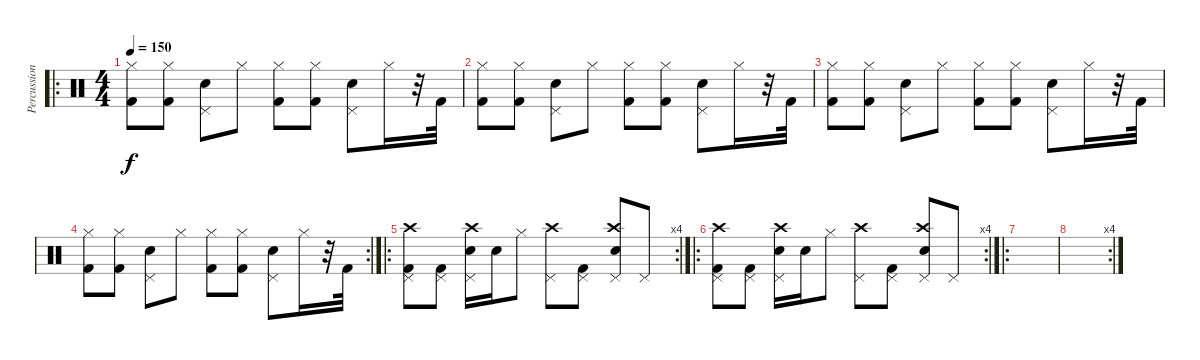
\track ("Percussions" "Percussion") {instrument percussion}
\staff {score}
\articulation defaults
\ro
\ts (4 4)
\tempo 150
\clef neutral
\ks c
("Hi-Hat (closed)" "Kick (hit) 2").8{dy f} ("Hi-Hat (closed)" "Kick (hit) 2").8 ("Pedal Hi-Hat (hit)" "Snare (hit) 2").8 "Hi-Hat (closed)".8 ("Hi-Hat (closed)" "Kick (hit) 2").8 ("Hi-Hat (closed)" "Kick (hit) 2").8 ("Pedal Hi-Hat (hit)" "Snare (hit) 2").8 "Hi-Hat (closed)".16 r.32 "Kick (hit) 2".32 |
("Hi-Hat (closed)" "Kick (hit) 2").8 ("Hi-Hat (closed)" "Kick (hit) 2").8 ("Pedal Hi-Hat (hit)" "Snare (hit) 2").8 "Hi-Hat (closed)".8 ("Hi-Hat (closed)" "Kick (hit) 2").8 ("Hi-Hat (closed)" "Kick (hit) 2").8 ("Pedal Hi-Hat (hit)" "Snare (hit) 2").8 "Hi-Hat (closed)".16 r.32 "Kick (hit) 2".32 |
("Hi-Hat (closed)" "Kick (hit) 2").8 ("Hi-Hat (closed)" "Kick (hit) 2").8 ("Pedal Hi-Hat (hit)" "Snare (hit) 2").8 "Hi-Hat (closed)".8 ("Hi-Hat (closed)" "Kick (hit) 2").8 ("Hi-Hat (closed)" "Kick (hit) 2").8 ("Pedal Hi-Hat (hit)" "Snare (hit) 2").8 "Hi-Hat (closed)".16 r.32 "Kick (hit) 2".32 |
\rc 2
("Hi-Hat (closed)" "Kick (hit) 2").8 ("Hi-Hat (closed)" "Kick (hit) 2").8 ("Pedal Hi-Hat (hit)" "Snare (hit) 2").8 "Hi-Hat (closed)".8 ("Hi-Hat (closed)" "Kick (hit) 2").8 ("Hi-Hat (closed)" "Kick (hit) 2").8 ("Pedal Hi-Hat (hit)" "Snare (hit) 2").8 "Hi-Hat (closed)".16 r.32 "Kick (hit) 2".32 |
\ro
\rc 4
("Pedal Hi-Hat (hit)" "Kick (hit) 2" "Crash high (hit)").8 ("Pedal Hi-Hat (hit)" "Kick (hit) 2").8 ("Pedal Hi-Hat (hit)" "Electric Snare (hit)" "Crash high (hit)").16 "Electric Snare (hit)".16 "Hi-Hat (closed)".8 ("Pedal Hi-Hat (hit)" "Crash high (hit)").8 ("Pedal Hi-Hat (hit)" "Kick (hit) 2").8 ("Pedal Hi-Hat (hit)" "Electric Snare (hit)" "Crash high (hit)").8 "Pedal Hi-Hat (hit)".8 |
\ro
\rc 4
("Pedal Hi-Hat (hit)" "Kick (hit) 2" "Crash high (hit)").8 ("Pedal Hi-Hat (hit)" "Kick (hit) 2").8 ("Pedal Hi-Hat (hit)" "Electric Snare (hit)" "Crash high (hit)").16 "Electric Snare (hit)".16 "Hi-Hat (closed)".8 ("Pedal Hi-Hat (hit)" "Crash high (hit)").8 ("Pedal Hi-Hat (hit)" "Kick (hit) 2").8 ("Pedal Hi-Hat (hit)" "Electric Snare (hit)" "Crash high (hit)").8 "Pedal Hi-Hat (hit)".8 |
\ro
|
\rc 4
